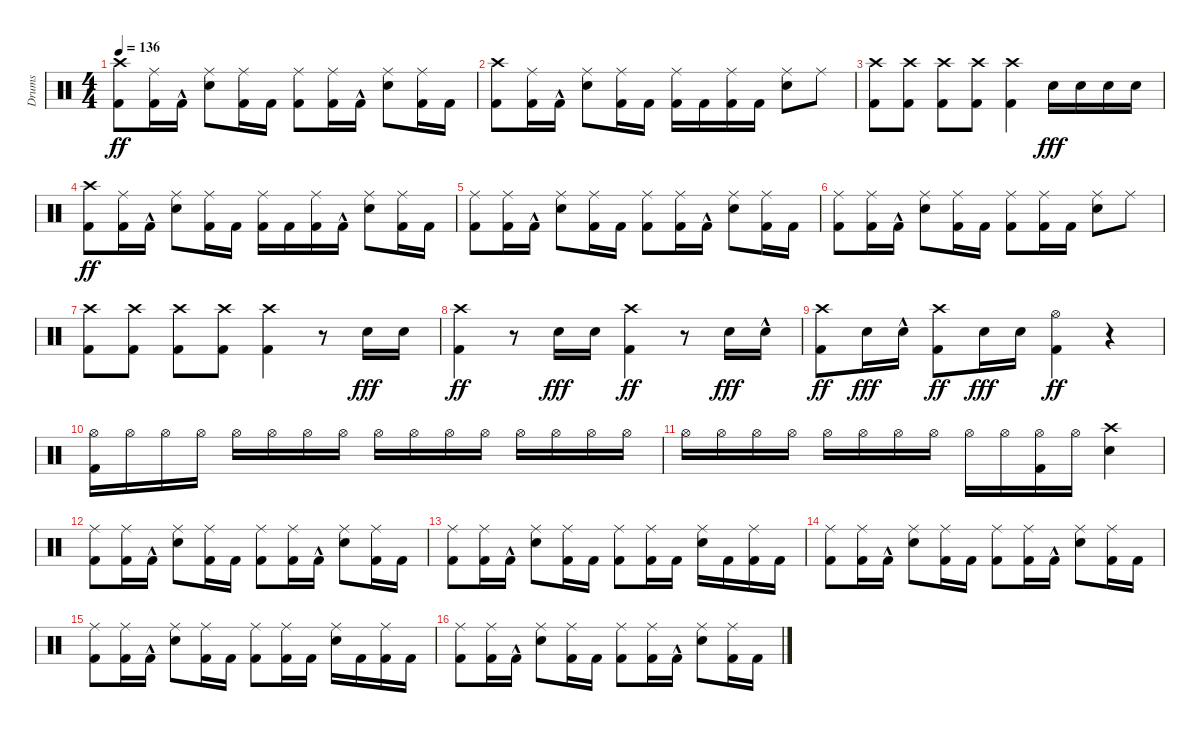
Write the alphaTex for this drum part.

\track ("Drums" "Drums") {instrument percussion}
\staff {score}
\articulation defaults
\ts (4 4)
\tempo 136
\clef neutral
\ks c
("Kick (hit) 2" "Crash high (hit)").8{dy ff} ("Kick (hit) 2" "Ride (middle)").16 "Kick (hit) 2"{hac}.16 ("Snare (hit) 2" "Ride (middle)").8 ("Kick (hit) 2" "Ride (middle)").16 "Kick (hit) 2".16 ("Kick (hit) 2" "Ride (middle)").8 ("Kick (hit) 2" "Ride (middle)").16 "Kick (hit) 2"{hac}.16 ("Snare (hit) 2" "Ride (middle)").8 ("Kick (hit) 2" "Ride (middle)").16 "Kick (hit) 2".16 |
("Kick (hit) 2" "Crash high (hit)").8 ("Kick (hit) 2" "Ride (middle)").16 "Kick (hit) 2"{hac}.16 ("Snare (hit) 2" "Ride (middle)").8 ("Kick (hit) 2" "Ride (middle)").16 "Kick (hit) 2".16 ("Kick (hit) 2" "Ride (middle)").16 "Kick (hit) 2".16 ("Kick (hit) 2" "Ride (middle)").16 "Kick (hit) 2".16 ("Snare (hit) 2" "Ride (middle)").8 "Ride (middle)".8 |
("Kick (hit) 2" "Crash high (hit)").8 ("Kick (hit) 2" "Crash high (hit)").8 ("Kick (hit) 2" "Crash high (hit)").8 ("Kick (hit) 2" "Crash high (hit)").8 ("Kick (hit) 2" "Crash high (hit)").4 "Snare (hit) 2".16{dy fff} "Snare (hit) 2".16 "Snare (hit) 2".16 "Snare (hit) 2".16 |
("Kick (hit) 2" "Crash high (hit)").8{dy ff} ("Kick (hit) 2" "Ride (middle)").16 "Kick (hit) 2"{hac}.16 ("Snare (hit) 2" "Ride (middle)").8 ("Kick (hit) 2" "Ride (middle)").16 "Kick (hit) 2".16 ("Kick (hit) 2" "Ride (middle)").16 "Kick (hit) 2".16 ("Kick (hit) 2" "Ride (middle)").16 "Kick (hit) 2"{hac}.16 ("Snare (hit) 2" "Ride (middle)").8 ("Kick (hit) 2" "Ride (middle)").16 "Kick (hit) 2".16 |
("Kick (hit) 2" "Ride (middle)").8 ("Kick (hit) 2" "Ride (middle)").16 "Kick (hit) 2"{hac}.16 ("Snare (hit) 2" "Ride (middle)").8 ("Kick (hit) 2" "Ride (middle)").16 "Kick (hit) 2".16 ("Kick (hit) 2" "Ride (middle)").8 ("Kick (hit) 2" "Ride (middle)").16 "Kick (hit) 2"{hac}.16 ("Snare (hit) 2" "Ride (middle)").8 ("Kick (hit) 2" "Ride (middle)").16 "Kick (hit) 2".16 |
("Kick (hit) 2" "Ride (middle)").8 ("Kick (hit) 2" "Ride (middle)").16 "Kick (hit) 2"{hac}.16 ("Snare (hit) 2" "Ride (middle)").8 ("Kick (hit) 2" "Ride (middle)").16 "Kick (hit) 2".16 ("Kick (hit) 2" "Ride (middle)").8 ("Kick (hit) 2" "Ride (middle)").16 "Kick (hit) 2".16 ("Snare (hit) 2" "Ride (middle)").8 "Ride (middle)".8 |
("Kick (hit) 2" "Crash high (hit)").8 ("Kick (hit) 2" "Crash high (hit)").8 ("Kick (hit) 2" "Crash high (hit)").8 ("Kick (hit) 2" "Crash high (hit)").8 ("Kick (hit) 2" "Crash high (hit)").4 r.8 "Snare (hit) 2".16{dy fff} "Snare (hit) 2".16 |
("Kick (hit) 2" "Crash high (hit)").4{dy ff} r.8 "Snare (hit) 2".16{dy fff} "Snare (hit) 2".16 ("Kick (hit) 2" "Crash high (hit)").4{dy ff} r.8 "Snare (hit) 2".16{dy fff} "Snare (hit) 2"{hac}.16 |
("Kick (hit) 2" "Crash high (hit)").8{dy ff} "Snare (hit) 2".16{dy fff} "Snare (hit) 2"{hac}.16 ("Kick (hit) 2" "Crash high (hit)").8{dy ff} "Snare (hit) 2".16{dy fff} "Snare (hit) 2".16 ("Kick (hit) 2" "Hi-Hat (open)").4{dy ff} r.4 |
("Kick (hit) 2" "Hi-Hat (open)").16 "Hi-Hat (open)".16 "Hi-Hat (open)".16 "Hi-Hat (open)".16 "Hi-Hat (open)".16 "Hi-Hat (open)".16 "Hi-Hat (open)".16 "Hi-Hat (open)".16 "Hi-Hat (open)".16 "Hi-Hat (open)".16 "Hi-Hat (open)".16 "Hi-Hat (open)".16 "Hi-Hat (open)".16 "Hi-Hat (open)".16 "Hi-Hat (open)".16 "Hi-Hat (open)".16 |
"Hi-Hat (open)".16 "Hi-Hat (open)".16 "Hi-Hat (open)".16 "Hi-Hat (open)".16 "Hi-Hat (open)".16 "Hi-Hat (open)".16 "Hi-Hat (open)".16 "Hi-Hat (open)".16 "Hi-Hat (open)".16 "Hi-Hat (open)".16 ("Kick (hit) 2" "Hi-Hat (open)").16 "Hi-Hat (open)".16 ("Snare (hit) 2" "Crash high (hit)").4 |
("Kick (hit) 2" "Ride (middle)").8 ("Kick (hit) 2" "Ride (middle)").16 "Kick (hit) 2"{hac}.16 ("Snare (hit) 2" "Ride (middle)").8 ("Kick (hit) 2" "Ride (middle)").16 "Kick (hit) 2".16 ("Kick (hit) 2" "Ride (middle)").8 ("Kick (hit) 2" "Ride (middle)").16 "Kick (hit) 2"{hac}.16 ("Snare (hit) 2" "Ride (middle)").8 ("Kick (hit) 2" "Ride (middle)").16 "Kick (hit) 2".16 |
("Kick (hit) 2" "Ride (middle)").8 ("Kick (hit) 2" "Ride (middle)").16 "Kick (hit) 2"{hac}.16 ("Snare (hit) 2" "Ride (middle)").8 ("Kick (hit) 2" "Ride (middle)").16 "Kick (hit) 2".16 ("Kick (hit) 2" "Ride (middle)").8 ("Kick (hit) 2" "Ride (middle)").16 "Kick (hit) 2".16 ("Snare (hit) 2" "Ride (middle)").16 "Kick (hit) 2".16 ("Kick (hit) 2" "Ride (middle)").16 "Kick (hit) 2".16 |
("Kick (hit) 2" "Ride (middle)").8 ("Kick (hit) 2" "Ride (middle)").16 "Kick (hit) 2"{hac}.16 ("Snare (hit) 2" "Ride (middle)").8 ("Kick (hit) 2" "Ride (middle)").16 "Kick (hit) 2".16 ("Kick (hit) 2" "Ride (middle)").8 ("Kick (hit) 2" "Ride (middle)").16 "Kick (hit) 2"{hac}.16 ("Snare (hit) 2" "Ride (middle)").8 ("Kick (hit) 2" "Ride (middle)").16 "Kick (hit) 2".16 |
("Kick (hit) 2" "Ride (middle)").8 ("Kick (hit) 2" "Ride (middle)").16 "Kick (hit) 2"{hac}.16 ("Snare (hit) 2" "Ride (middle)").8 ("Kick (hit) 2" "Ride (middle)").16 "Kick (hit) 2".16 ("Kick (hit) 2" "Ride (middle)").8 ("Kick (hit) 2" "Ride (middle)").16 "Kick (hit) 2".16 ("Snare (hit) 2" "Ride (middle)").16 "Kick (hit) 2".16 ("Kick (hit) 2" "Ride (middle)").16 "Kick (hit) 2".16 |
("Kick (hit) 2" "Ride (middle)").8 ("Kick (hit) 2" "Ride (middle)").16 "Kick (hit) 2"{hac}.16 ("Snare (hit) 2" "Ride (middle)").8 ("Kick (hit) 2" "Ride (middle)").16 "Kick (hit) 2".16 ("Kick (hit) 2" "Ride (middle)").8 ("Kick (hit) 2" "Ride (middle)").16 "Kick (hit) 2"{hac}.16 ("Snare (hit) 2" "Ride (middle)").8 ("Kick (hit) 2" "Ride (middle)").16 "Kick (hit) 2".16
